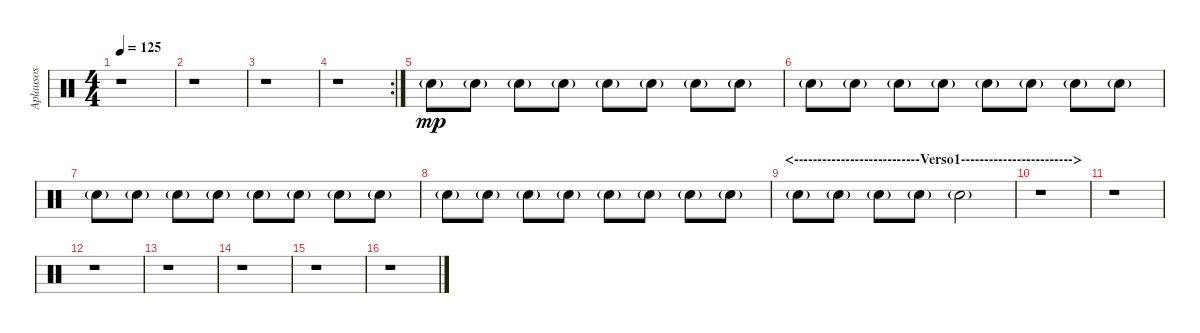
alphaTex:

\track ("Aplausos" "Aplausos") {instrument percussion}
\staff {score}
\articulation defaults
\ts (4 4)
\tempo 125
\clef neutral
\ks c
r.1{dy mp} |
r.1 |
r.1 |
\rc 2
r.1 |
"Hand Clap (hit)"{g}.8 "Hand Clap (hit)"{g}.8 "Hand Clap (hit)"{g}.8 "Hand Clap (hit)"{g}.8 "Hand Clap (hit)"{g}.8 "Hand Clap (hit)"{g}.8 "Hand Clap (hit)"{g}.8 "Hand Clap (hit)"{g}.8 |
"Hand Clap (hit)"{g}.8 "Hand Clap (hit)"{g}.8 "Hand Clap (hit)"{g}.8 "Hand Clap (hit)"{g}.8 "Hand Clap (hit)"{g}.8 "Hand Clap (hit)"{g}.8 "Hand Clap (hit)"{g}.8 "Hand Clap (hit)"{g}.8 |
"Hand Clap (hit)"{g}.8 "Hand Clap (hit)"{g}.8 "Hand Clap (hit)"{g}.8 "Hand Clap (hit)"{g}.8 "Hand Clap (hit)"{g}.8 "Hand Clap (hit)"{g}.8 "Hand Clap (hit)"{g}.8 "Hand Clap (hit)"{g}.8 |
"Hand Clap (hit)"{g}.8 "Hand Clap (hit)"{g}.8 "Hand Clap (hit)"{g}.8 "Hand Clap (hit)"{g}.8 "Hand Clap (hit)"{g}.8 "Hand Clap (hit)"{g}.8 "Hand Clap (hit)"{g}.8 "Hand Clap (hit)"{g}.8 |
\section ("" "<---------------------------Verso1------------------------>")
"Hand Clap (hit)"{g}.8 "Hand Clap (hit)"{g}.8 "Hand Clap (hit)"{g}.8 "Hand Clap (hit)"{g}.8 "Hand Clap (hit)"{g}.2 |
r.1 |
r.1 |
r.1 |
r.1 |
r.1 |
r.1 |
r.1
